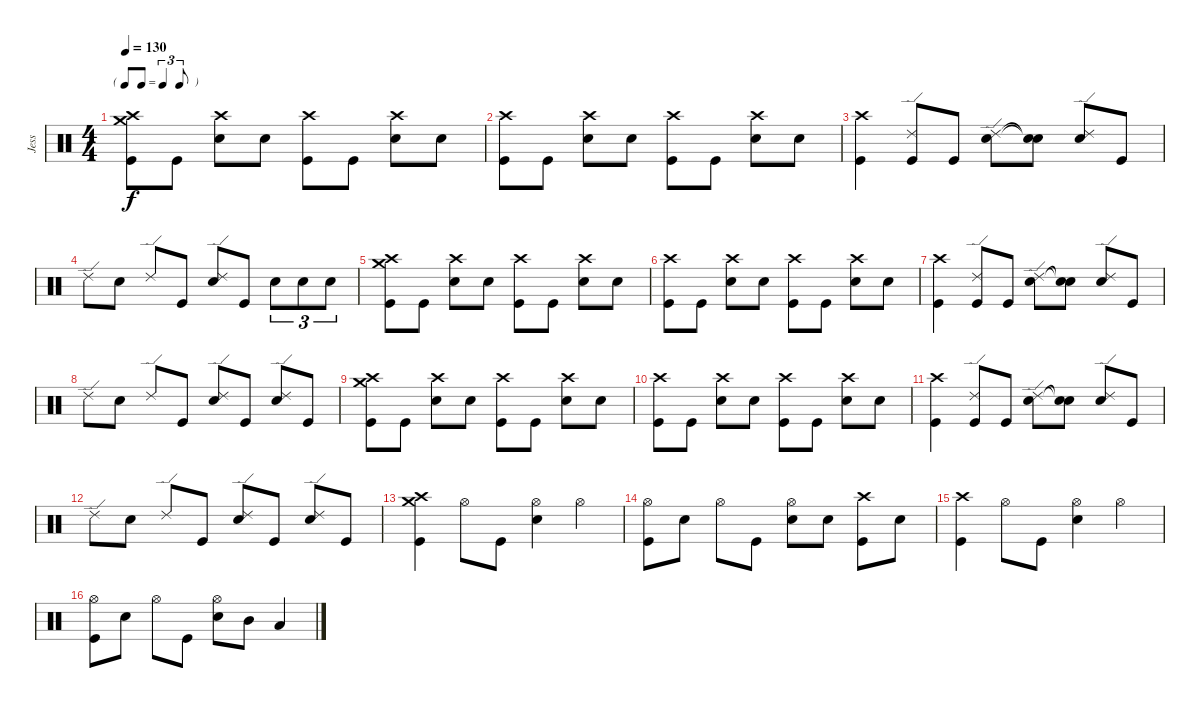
\track ("Jess" "Jess") {instrument percussion}
\staff {score}
\articulation defaults
\ts (4 4)
\tf triplet8th
\tempo 130
\clef neutral
\ks c
("Crash high (hit)" "Crash medium (hit)" "Kick (hit)").8{dy f} "Kick (hit)".8 ("Crash high (hit)" "Snare (hit) 2").8 "Snare (hit) 2".8 ("Crash high (hit)" "Kick (hit)").8 "Kick (hit)".8 ("Crash high (hit)" "Snare (hit) 2").8 "Snare (hit) 2".8 |
("Crash high (hit)" "Kick (hit)").8 "Kick (hit)".8 ("Crash high (hit)" "Snare (hit) 2").8 "Snare (hit) 2".8 ("Crash high (hit)" "Kick (hit)").8 "Kick (hit)".8 ("Crash high (hit)" "Snare (hit) 2").8 "Snare (hit) 2".8 |
("Crash high (hit)" "Kick (hit)").4 ("Ride (edge) 2" "Kick (hit)").8 "Kick (hit)".8 ("Ride (edge) 2" "Snare (hit) 2").8 ("Snare (hit)"{t} "Snare (hit)"{t}).8 ("Ride (edge) 2" "Snare (hit) 2").8 "Kick (hit)".8 |
"Ride (edge) 2".8 "Snare (hit) 2".8 "Ride (edge) 2".8 "Kick (hit)".8 ("Ride (edge) 2" "Snare (hit) 2").8 "Kick (hit)".8 "Snare (hit) 2".8{tu (3 2)} "Snare (hit) 2".8{tu (3 2)} "Snare (hit) 2".8{tu (3 2)} |
("Crash high (hit)" "Crash medium (hit)" "Kick (hit)").8 "Kick (hit)".8 ("Crash high (hit)" "Snare (hit) 2").8 "Snare (hit) 2".8 ("Crash high (hit)" "Kick (hit)").8 "Kick (hit)".8 ("Crash high (hit)" "Snare (hit) 2").8 "Snare (hit) 2".8 |
("Crash high (hit)" "Kick (hit)").8 "Kick (hit)".8 ("Crash high (hit)" "Snare (hit) 2").8 "Snare (hit) 2".8 ("Crash high (hit)" "Kick (hit)").8 "Kick (hit)".8 ("Crash high (hit)" "Snare (hit) 2").8 "Snare (hit) 2".8 |
("Crash high (hit)" "Kick (hit)").4 ("Ride (edge) 2" "Kick (hit)").8 "Kick (hit)".8 ("Ride (edge) 2" "Snare (hit) 2").8 ("Snare (hit)"{t} "Snare (hit)"{t}).8 ("Ride (edge) 2" "Snare (hit) 2").8 "Kick (hit)".8 |
"Ride (edge) 2".8 "Snare (hit) 2".8 "Ride (edge) 2".8 "Kick (hit)".8 ("Ride (edge) 2" "Snare (hit) 2").8 "Kick (hit)".8 ("Ride (edge) 2" "Snare (hit) 2").8 "Kick (hit)".8 |
("Crash high (hit)" "Crash medium (hit)" "Kick (hit)").8 "Kick (hit)".8 ("Crash high (hit)" "Snare (hit) 2").8 "Snare (hit) 2".8 ("Crash high (hit)" "Kick (hit)").8 "Kick (hit)".8 ("Crash high (hit)" "Snare (hit) 2").8 "Snare (hit) 2".8 |
("Crash high (hit)" "Kick (hit)").8 "Kick (hit)".8 ("Crash high (hit)" "Snare (hit) 2").8 "Snare (hit) 2".8 ("Crash high (hit)" "Kick (hit)").8 "Kick (hit)".8 ("Crash high (hit)" "Snare (hit) 2").8 "Snare (hit) 2".8 |
("Crash high (hit)" "Kick (hit)").4 ("Ride (edge) 2" "Kick (hit)").8 "Kick (hit)".8 ("Ride (edge) 2" "Snare (hit) 2").8 ("Snare (hit)"{t} "Snare (hit)"{t}).8 ("Ride (edge) 2" "Snare (hit) 2").8 "Kick (hit)".8 |
"Ride (edge) 2".8 "Snare (hit) 2".8 "Ride (edge) 2".8 "Kick (hit)".8 ("Ride (edge) 2" "Snare (hit) 2").8 "Kick (hit)".8 ("Ride (edge) 2" "Snare (hit) 2").8 "Kick (hit)".8 |
("Crash high (hit)" "Crash medium (hit)" "Kick (hit)").4 "Hi-Hat (open)".8 "Kick (hit)".8 ("Hi-Hat (open)" "Snare (hit) 2").4 "Hi-Hat (open)".4 |
("Hi-Hat (open)" "Kick (hit)").8 "Snare (hit) 2".8 "Hi-Hat (open)".8 "Kick (hit)".8 ("Hi-Hat (open)" "Snare (hit) 2").8 "Snare (hit) 2".8 ("Crash high (hit)" "Kick (hit)").8 "Snare (hit) 2".8 |
("Crash high (hit)" "Kick (hit)").4 "Hi-Hat (open)".8 "Kick (hit)".8 ("Hi-Hat (open)" "Snare (hit) 2").4 "Hi-Hat (open)".4 |
("Hi-Hat (open)" "Kick (hit)").8 "Snare (hit) 2".8 "Hi-Hat (open)".8 "Kick (hit)".8 ("Hi-Hat (open)" "Snare (hit) 2").8 "Mid Tom (hit)".8 "Low Tom (hit)".4
